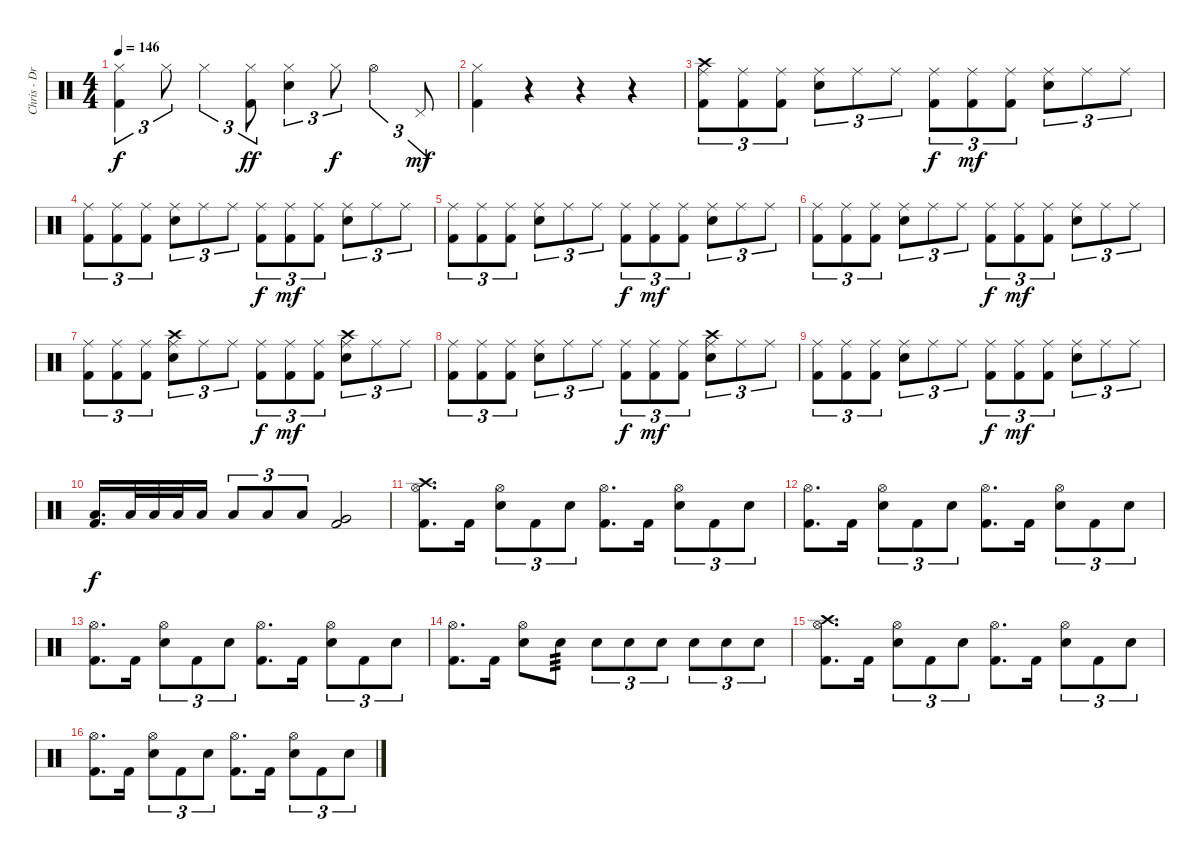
\track ("Chris - Drums" "Chris - Dr") {instrument percussion}
\staff {score}
\articulation defaults
\ts (4 4)
\tempo 146
\clef neutral
\ks c
("Hi-Hat (closed)" "Kick (hit) 2").4{tu (3 2) dy f} "Hi-Hat (closed)".8{tu (3 2)} "Hi-Hat (closed)".4{tu (3 2)} ("Hi-Hat (closed)" "Kick (hit) 2").8{tu (3 2) dy ff} ("Hi-Hat (closed)" "Electric Snare (hit)").4{tu (3 2)} "Hi-Hat (closed)".8{tu (3 2) dy f} "Hi-Hat (open)".4{tu (3 2)} "Pedal Hi-Hat (hit)".8{tu (3 2) dy mf} |
("Hi-Hat (closed)" "Kick (hit) 2").4 r.4 r.4 r.4 |
("Crash high (hit)" "Ride (middle)" "Kick (hit) 2").8{tu (3 2)} ("Ride (middle)" "Kick (hit) 2").8{tu (3 2)} ("Ride (middle)" "Kick (hit) 2").8{tu (3 2)} ("Ride (middle)" "Electric Snare (hit)").8{tu (3 2)} "Ride (middle)".8{tu (3 2)} "Ride (middle)".8{tu (3 2)} ("Ride (middle)" "Kick (hit) 2").8{tu (3 2) dy f} ("Ride (middle)" "Kick (hit) 2").8{tu (3 2) dy mf} ("Ride (middle)" "Kick (hit) 2").8{tu (3 2)} ("Ride (middle)" "Electric Snare (hit)").8{tu (3 2)} "Ride (middle)".8{tu (3 2)} "Ride (middle)".8{tu (3 2)} |
("Ride (middle)" "Kick (hit) 2").8{tu (3 2)} ("Ride (middle)" "Kick (hit) 2").8{tu (3 2)} ("Ride (middle)" "Kick (hit) 2").8{tu (3 2)} ("Ride (middle)" "Electric Snare (hit)").8{tu (3 2)} "Ride (middle)".8{tu (3 2)} "Ride (middle)".8{tu (3 2)} ("Ride (middle)" "Kick (hit) 2").8{tu (3 2) dy f} ("Ride (middle)" "Kick (hit) 2").8{tu (3 2) dy mf} ("Ride (middle)" "Kick (hit) 2").8{tu (3 2)} ("Ride (middle)" "Electric Snare (hit)").8{tu (3 2)} "Ride (middle)".8{tu (3 2)} "Ride (middle)".8{tu (3 2)} |
("Ride (middle)" "Kick (hit) 2").8{tu (3 2)} ("Ride (middle)" "Kick (hit) 2").8{tu (3 2)} ("Ride (middle)" "Kick (hit) 2").8{tu (3 2)} ("Ride (middle)" "Electric Snare (hit)").8{tu (3 2)} "Ride (middle)".8{tu (3 2)} "Ride (middle)".8{tu (3 2)} ("Ride (middle)" "Kick (hit) 2").8{tu (3 2) dy f} ("Ride (middle)" "Kick (hit) 2").8{tu (3 2) dy mf} ("Ride (middle)" "Kick (hit) 2").8{tu (3 2)} ("Ride (middle)" "Electric Snare (hit)").8{tu (3 2)} "Ride (middle)".8{tu (3 2)} "Ride (middle)".8{tu (3 2)} |
("Ride (middle)" "Kick (hit) 2").8{tu (3 2)} ("Ride (middle)" "Kick (hit) 2").8{tu (3 2)} ("Ride (middle)" "Kick (hit) 2").8{tu (3 2)} ("Ride (middle)" "Electric Snare (hit)").8{tu (3 2)} "Ride (middle)".8{tu (3 2)} "Ride (middle)".8{tu (3 2)} ("Ride (middle)" "Kick (hit) 2").8{tu (3 2) dy f} ("Ride (middle)" "Kick (hit) 2").8{tu (3 2) dy mf} ("Ride (middle)" "Kick (hit) 2").8{tu (3 2)} ("Ride (middle)" "Electric Snare (hit)").8{tu (3 2)} "Ride (middle)".8{tu (3 2)} "Ride (middle)".8{tu (3 2)} |
("Ride (middle)" "Kick (hit) 2").8{tu (3 2)} ("Ride (middle)" "Kick (hit) 2").8{tu (3 2)} ("Ride (middle)" "Kick (hit) 2").8{tu (3 2)} ("Crash high (hit)" "Ride (middle)" "Electric Snare (hit)").8{tu (3 2)} "Ride (middle)".8{tu (3 2)} "Ride (middle)".8{tu (3 2)} ("Ride (middle)" "Kick (hit) 2").8{tu (3 2) dy f} ("Ride (middle)" "Kick (hit) 2").8{tu (3 2) dy mf} ("Ride (middle)" "Kick (hit) 2").8{tu (3 2)} ("Crash high (hit)" "Ride (middle)" "Electric Snare (hit)").8{tu (3 2)} "Ride (middle)".8{tu (3 2)} "Ride (middle)".8{tu (3 2)} |
("Ride (middle)" "Kick (hit) 2").8{tu (3 2)} ("Ride (middle)" "Kick (hit) 2").8{tu (3 2)} ("Ride (middle)" "Kick (hit) 2").8{tu (3 2)} ("Ride (middle)" "Electric Snare (hit)").8{tu (3 2)} "Ride (middle)".8{tu (3 2)} "Ride (middle)".8{tu (3 2)} ("Ride (middle)" "Kick (hit) 2").8{tu (3 2) dy f} ("Ride (middle)" "Kick (hit) 2").8{tu (3 2) dy mf} ("Ride (middle)" "Kick (hit) 2").8{tu (3 2)} ("Crash high (hit)" "Ride (middle)" "Electric Snare (hit)").8{tu (3 2)} "Ride (middle)".8{tu (3 2)} "Ride (middle)".8{tu (3 2)} |
("Ride (middle)" "Kick (hit) 2").8{tu (3 2)} ("Ride (middle)" "Kick (hit) 2").8{tu (3 2)} ("Ride (middle)" "Kick (hit) 2").8{tu (3 2)} ("Ride (middle)" "Electric Snare (hit)").8{tu (3 2)} "Ride (middle)".8{tu (3 2)} "Ride (middle)".8{tu (3 2)} ("Ride (middle)" "Kick (hit) 2").8{tu (3 2) dy f} ("Ride (middle)" "Kick (hit) 2").8{tu (3 2) dy mf} ("Ride (middle)" "Kick (hit) 2").8{tu (3 2)} ("Ride (middle)" "Electric Snare (hit)").8{tu (3 2)} "Ride (middle)".8{tu (3 2)} "Ride (middle)".8{tu (3 2)} |
("Low Tom (hit)" "Kick (hit) 2").16{d dy f} "Low Tom (hit)".32 "Low Tom (hit)".32 "Low Tom (hit)".32 "Low Tom (hit)".16 "Low Tom (hit)".8{tu (3 2)} "Low Tom (hit)".8{tu (3 2)} "Low Tom (hit)".8{tu (3 2)} ("Very Low Tom (hit)" "Kick (hit) 2").2 |
("Crash high (hit)" "Hi-Hat (open)" "Kick (hit) 2").8{d} "Kick (hit) 2".16 ("Hi-Hat (open)" "Electric Snare (hit)").8{tu (3 2)} "Kick (hit) 2".8{tu (3 2)} "Electric Snare (hit)".8{tu (3 2)} ("Hi-Hat (open)" "Kick (hit) 2").8{d} "Kick (hit) 2".16 ("Hi-Hat (open)" "Electric Snare (hit)").8{tu (3 2)} "Kick (hit) 2".8{tu (3 2)} "Electric Snare (hit)".8{tu (3 2)} |
("Hi-Hat (open)" "Kick (hit) 2").8{d} "Kick (hit) 2".16 ("Hi-Hat (open)" "Electric Snare (hit)").8{tu (3 2)} "Kick (hit) 2".8{tu (3 2)} "Electric Snare (hit)".8{tu (3 2)} ("Hi-Hat (open)" "Kick (hit) 2").8{d} "Kick (hit) 2".16 ("Hi-Hat (open)" "Electric Snare (hit)").8{tu (3 2)} "Kick (hit) 2".8{tu (3 2)} "Electric Snare (hit)".8{tu (3 2)} |
("Hi-Hat (open)" "Kick (hit) 2").8{d} "Kick (hit) 2".16 ("Hi-Hat (open)" "Electric Snare (hit)").8{tu (3 2)} "Kick (hit) 2".8{tu (3 2)} "Electric Snare (hit)".8{tu (3 2)} ("Hi-Hat (open)" "Kick (hit) 2").8{d} "Kick (hit) 2".16 ("Hi-Hat (open)" "Electric Snare (hit)").8{tu (3 2)} "Kick (hit) 2".8{tu (3 2)} "Electric Snare (hit)".8{tu (3 2)} |
("Hi-Hat (open)" "Kick (hit) 2").8{d} "Kick (hit) 2".16 ("Hi-Hat (open)" "Electric Snare (hit)").8 "Electric Snare (hit)".8{tp 3} "Electric Snare (hit)".8{tu (3 2)} "Electric Snare (hit)".8{tu (3 2)} "Electric Snare (hit)".8{tu (3 2)} "Electric Snare (hit)".8{tu (3 2)} "Electric Snare (hit)".8{tu (3 2)} "Electric Snare (hit)".8{tu (3 2)} |
("Crash high (hit)" "Hi-Hat (open)" "Kick (hit) 2").8{d} "Kick (hit) 2".16 ("Hi-Hat (open)" "Electric Snare (hit)").8{tu (3 2)} "Kick (hit) 2".8{tu (3 2)} "Electric Snare (hit)".8{tu (3 2)} ("Hi-Hat (open)" "Kick (hit) 2").8{d} "Kick (hit) 2".16 ("Hi-Hat (open)" "Electric Snare (hit)").8{tu (3 2)} "Kick (hit) 2".8{tu (3 2)} "Electric Snare (hit)".8{tu (3 2)} |
("Hi-Hat (open)" "Kick (hit) 2").8{d} "Kick (hit) 2".16 ("Hi-Hat (open)" "Electric Snare (hit)").8{tu (3 2)} "Kick (hit) 2".8{tu (3 2)} "Electric Snare (hit)".8{tu (3 2)} ("Hi-Hat (open)" "Kick (hit) 2").8{d} "Kick (hit) 2".16 ("Hi-Hat (open)" "Electric Snare (hit)").8{tu (3 2)} "Kick (hit) 2".8{tu (3 2)} "Electric Snare (hit)".8{tu (3 2)}
